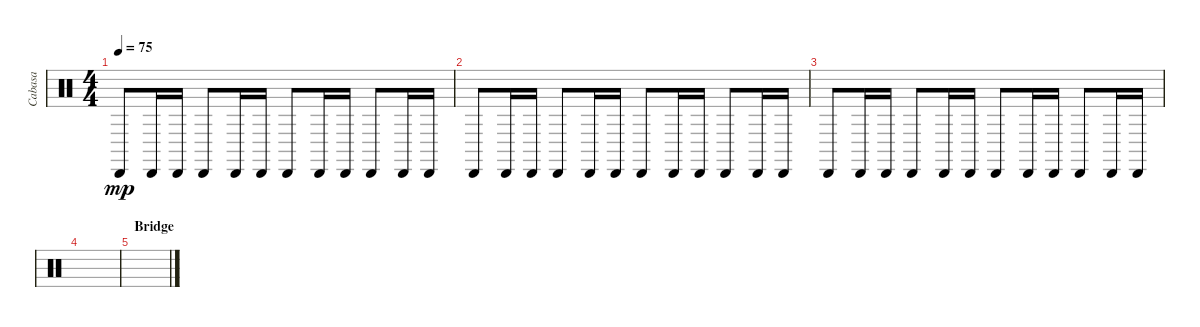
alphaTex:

\track ("Cabasa" "Cabasa") {instrument percussion}
\staff {score}
\articulation defaults
\ts (4 4)
\tempo 75
\clef neutral
\ks c "Cabasa (hit)".8{dy mp} "Cabasa (hit)".16 "Cabasa (hit)".16 "Cabasa (hit)".8 "Cabasa (hit)".16 "Cabasa (hit)".16 "Cabasa (hit)".8 "Cabasa (hit)".16 "Cabasa (hit)".16 "Cabasa (hit)".8 "Cabasa (hit)".16 "Cabasa (hit)".16
|
"Cabasa (hit)".8 "Cabasa (hit)".16 "Cabasa (hit)".16 "Cabasa (hit)".8 "Cabasa (hit)".16 "Cabasa (hit)".16 "Cabasa (hit)".8 "Cabasa (hit)".16 "Cabasa (hit)".16 "Cabasa (hit)".8 "Cabasa (hit)".16 "Cabasa (hit)".16 |
"Cabasa (hit)".8 "Cabasa (hit)".16 "Cabasa (hit)".16 "Cabasa (hit)".8 "Cabasa (hit)".16 "Cabasa (hit)".16 "Cabasa (hit)".8 "Cabasa (hit)".16 "Cabasa (hit)".16 "Cabasa (hit)".8 "Cabasa (hit)".16 "Cabasa (hit)".16 |
|
\section ("" "Bridge")
